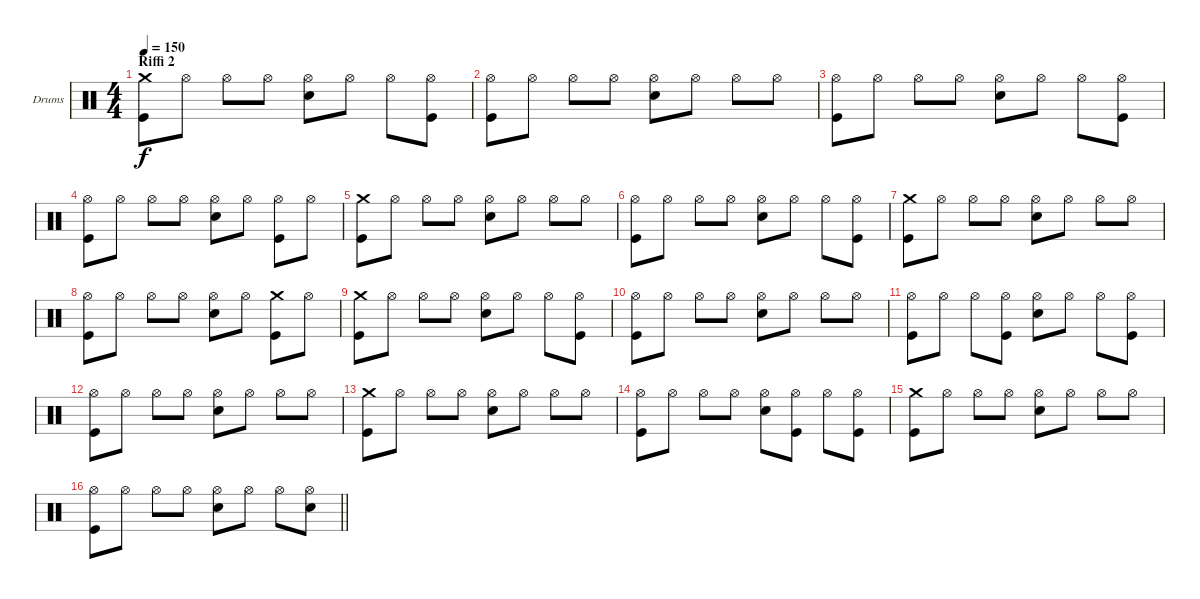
\bracketExtendMode groupsimilarinstruments
\firstSystemTrackNameOrientation horizontal
\otherSystemsTrackNameOrientation horizontal
\track ("Drumkit" "Drums") {instrument percussion}
\staff {score}
\articulation defaults
\ts (4 4)
\section ("" "Riffi 2")
\tempo 150
\clef neutral
\ks c
("Crash medium (hit)" "Kick (hit)").8{dy f} "Hi-Hat (open)".8 "Hi-Hat (open)".8 "Hi-Hat (open)".8 ("Hi-Hat (open)" "Snare (hit) 2").8 "Hi-Hat (open)".8 "Hi-Hat (open)".8 ("Hi-Hat (open)" "Kick (hit)").8 |
("Hi-Hat (open)" "Kick (hit)").8 "Hi-Hat (open)".8 "Hi-Hat (open)".8 "Hi-Hat (open)".8 ("Hi-Hat (open)" "Snare (hit) 2").8 "Hi-Hat (open)".8 "Hi-Hat (open)".8 "Hi-Hat (open)".8 |
("Hi-Hat (open)" "Kick (hit)").8 "Hi-Hat (open)".8 "Hi-Hat (open)".8 "Hi-Hat (open)".8 ("Hi-Hat (open)" "Snare (hit) 2").8 "Hi-Hat (open)".8 "Hi-Hat (open)".8 ("Hi-Hat (open)" "Kick (hit)").8 |
("Hi-Hat (open)" "Kick (hit)").8 "Hi-Hat (open)".8 "Hi-Hat (open)".8 "Hi-Hat (open)".8 ("Hi-Hat (open)" "Snare (hit) 2").8 "Hi-Hat (open)".8 ("Hi-Hat (open)" "Kick (hit)").8 "Hi-Hat (open)".8 |
("Crash medium (hit)" "Kick (hit)").8 "Hi-Hat (open)".8 "Hi-Hat (open)".8 "Hi-Hat (open)".8 ("Hi-Hat (open)" "Snare (hit) 2").8 "Hi-Hat (open)".8 "Hi-Hat (open)".8 "Hi-Hat (open)".8 |
("Hi-Hat (open)" "Kick (hit)").8 "Hi-Hat (open)".8 "Hi-Hat (open)".8 "Hi-Hat (open)".8 ("Hi-Hat (open)" "Snare (hit) 2").8 "Hi-Hat (open)".8 "Hi-Hat (open)".8 ("Hi-Hat (open)" "Kick (hit)").8 |
("Crash medium (hit)" "Kick (hit)").8 "Hi-Hat (open)".8 "Hi-Hat (open)".8 "Hi-Hat (open)".8 ("Hi-Hat (open)" "Snare (hit) 2").8 "Hi-Hat (open)".8 "Hi-Hat (open)".8 "Hi-Hat (open)".8 |
("Hi-Hat (open)" "Kick (hit)").8 "Hi-Hat (open)".8 "Hi-Hat (open)".8 "Hi-Hat (open)".8 ("Hi-Hat (open)" "Snare (hit) 2").8 "Hi-Hat (open)".8 ("Crash medium (hit)" "Kick (hit)").8 "Hi-Hat (open)".8 |
("Crash medium (hit)" "Kick (hit)").8 "Hi-Hat (open)".8 "Hi-Hat (open)".8 "Hi-Hat (open)".8 ("Hi-Hat (open)" "Snare (hit) 2").8 "Hi-Hat (open)".8 "Hi-Hat (open)".8 ("Hi-Hat (open)" "Kick (hit)").8 |
("Hi-Hat (open)" "Kick (hit)").8 "Hi-Hat (open)".8 "Hi-Hat (open)".8 "Hi-Hat (open)".8 ("Hi-Hat (open)" "Snare (hit) 2").8 "Hi-Hat (open)".8 "Hi-Hat (open)".8 "Hi-Hat (open)".8 |
("Hi-Hat (open)" "Kick (hit)").8 "Hi-Hat (open)".8 "Hi-Hat (open)".8 ("Hi-Hat (open)" "Kick (hit)").8 ("Hi-Hat (open)" "Snare (hit) 2").8 "Hi-Hat (open)".8 "Hi-Hat (open)".8 ("Hi-Hat (open)" "Kick (hit)").8 |
("Hi-Hat (open)" "Kick (hit)").8 "Hi-Hat (open)".8 "Hi-Hat (open)".8 "Hi-Hat (open)".8 ("Hi-Hat (open)" "Snare (hit) 2").8 "Hi-Hat (open)".8 "Hi-Hat (open)".8 "Hi-Hat (open)".8 |
("Crash medium (hit)" "Kick (hit)").8 "Hi-Hat (open)".8 "Hi-Hat (open)".8 "Hi-Hat (open)".8 ("Hi-Hat (open)" "Snare (hit) 2").8 "Hi-Hat (open)".8 "Hi-Hat (open)".8 "Hi-Hat (open)".8 |
("Hi-Hat (open)" "Kick (hit)").8 "Hi-Hat (open)".8 "Hi-Hat (open)".8 "Hi-Hat (open)".8 ("Hi-Hat (open)" "Snare (hit) 2").8 ("Hi-Hat (open)" "Kick (hit)").8 "Hi-Hat (open)".8 ("Hi-Hat (open)" "Kick (hit)").8 |
("Crash medium (hit)" "Kick (hit)").8 "Hi-Hat (open)".8 "Hi-Hat (open)".8 "Hi-Hat (open)".8 ("Hi-Hat (open)" "Snare (hit) 2").8 "Hi-Hat (open)".8 "Hi-Hat (open)".8 "Hi-Hat (open)".8 |
\barLineRight lightlight
("Hi-Hat (open)" "Kick (hit)").8 "Hi-Hat (open)".8 "Hi-Hat (open)".8 "Hi-Hat (open)".8 ("Hi-Hat (open)" "Snare (hit) 2").8 "Hi-Hat (open)".8 "Hi-Hat (open)".8 ("Hi-Hat (open)" "Snare (hit) 2").8
